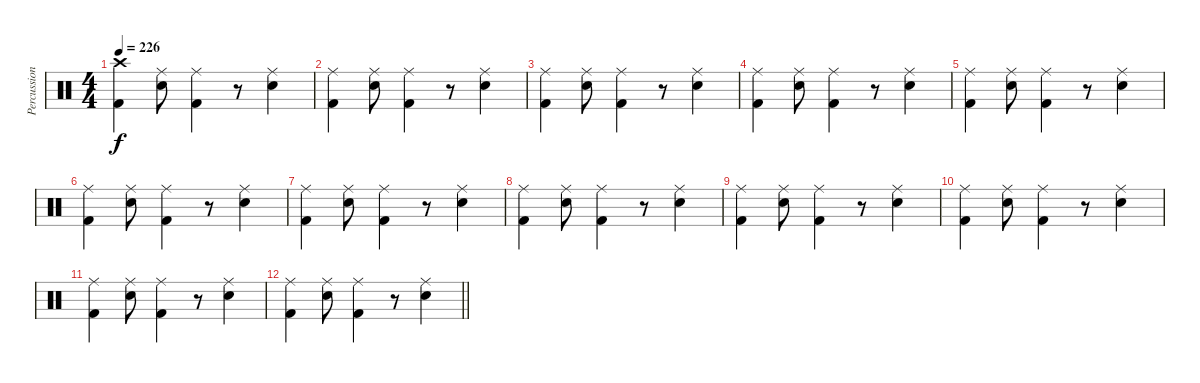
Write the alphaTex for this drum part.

\track ("Percussion" "Percussion") {instrument percussion}
\staff {score}
\articulation defaults
\ts (4 4)
\tempo 226
\clef neutral
\ks c
("Crash high (hit)" "Kick (hit) 2").4{dy f} ("Ride (middle)" "Snare (hit) 2").8 ("Ride (middle)" "Kick (hit) 2").4 r.8 ("Ride (middle)" "Snare (hit) 2").4 |
("Ride (middle)" "Kick (hit) 2").4 ("Ride (middle)" "Snare (hit) 2").8 ("Ride (middle)" "Kick (hit) 2").4 r.8 ("Ride (middle)" "Snare (hit) 2").4 |
("Ride (middle)" "Kick (hit) 2").4 ("Ride (middle)" "Snare (hit) 2").8 ("Ride (middle)" "Kick (hit) 2").4 r.8 ("Ride (middle)" "Snare (hit) 2").4 |
("Ride (middle)" "Kick (hit) 2").4 ("Ride (middle)" "Snare (hit) 2").8 ("Ride (middle)" "Kick (hit) 2").4 r.8 ("Ride (middle)" "Snare (hit) 2").4 |
("Ride (middle)" "Kick (hit) 2").4 ("Ride (middle)" "Snare (hit) 2").8 ("Ride (middle)" "Kick (hit) 2").4 r.8 ("Ride (middle)" "Snare (hit) 2").4 |
("Ride (middle)" "Kick (hit) 2").4 ("Ride (middle)" "Snare (hit) 2").8 ("Ride (middle)" "Kick (hit) 2").4 r.8 ("Ride (middle)" "Snare (hit) 2").4 |
("Ride (middle)" "Kick (hit) 2").4 ("Ride (middle)" "Snare (hit) 2").8 ("Ride (middle)" "Kick (hit) 2").4 r.8 ("Ride (middle)" "Snare (hit) 2").4 |
("Ride (middle)" "Kick (hit) 2").4 ("Ride (middle)" "Snare (hit) 2").8 ("Ride (middle)" "Kick (hit) 2").4 r.8 ("Ride (middle)" "Snare (hit) 2").4 |
("Ride (middle)" "Kick (hit) 2").4 ("Ride (middle)" "Snare (hit) 2").8 ("Ride (middle)" "Kick (hit) 2").4 r.8 ("Ride (middle)" "Snare (hit) 2").4 |
("Ride (middle)" "Kick (hit) 2").4 ("Ride (middle)" "Snare (hit) 2").8 ("Ride (middle)" "Kick (hit) 2").4 r.8 ("Ride (middle)" "Snare (hit) 2").4 |
("Ride (middle)" "Kick (hit) 2").4 ("Ride (middle)" "Snare (hit) 2").8 ("Ride (middle)" "Kick (hit) 2").4 r.8 ("Ride (middle)" "Snare (hit) 2").4 |
\barLineRight lightlight
("Ride (middle)" "Kick (hit) 2").4 ("Ride (middle)" "Snare (hit) 2").8 ("Ride (middle)" "Kick (hit) 2").4 r.8 ("Ride (middle)" "Snare (hit) 2").4
